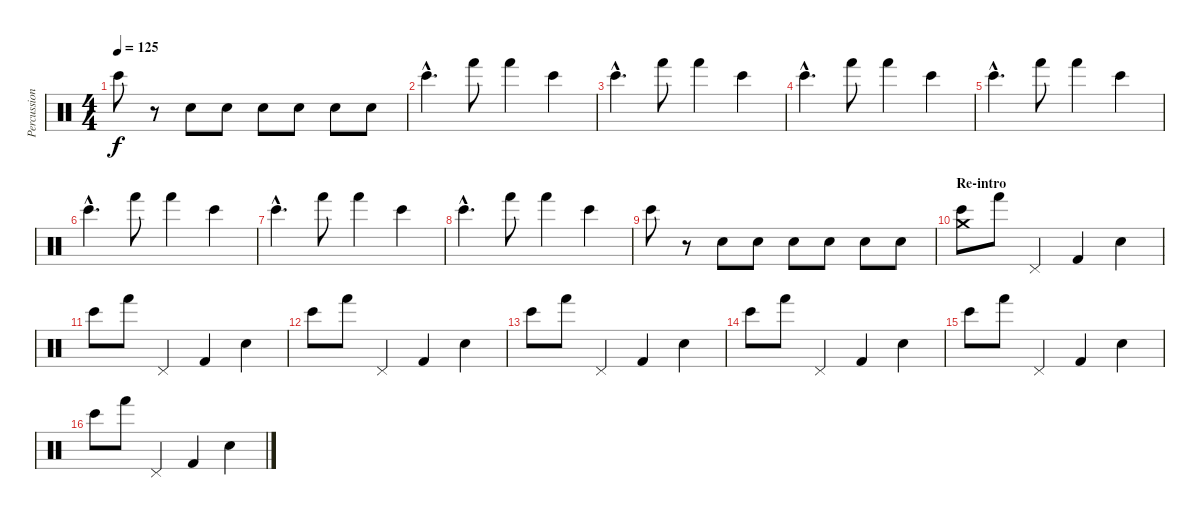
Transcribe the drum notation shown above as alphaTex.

\track ("Percussions" "Percussion") {instrument percussion}
\staff {score}
\articulation defaults
\ts (4 4)
\tempo 125
\clef neutral
\ks c "Bongo High (hit)".8{dy f volume 3}
r.8 "Electric Snare (hit)".8{volume 10} "Electric Snare (hit)".8 "Electric Snare (hit)".8 "Electric Snare (hit)".8 "Electric Snare (hit)".8 "Electric Snare (hit)".8 |
"Bongo High (hit)"{hac}.4{d} "Hand (hit)".8 "Hand (hit)".4 "Bongo High (hit)".4 |
"Bongo High (hit)"{hac}.4{d} "Hand (hit)".8 "Hand (hit)".4 "Bongo High (hit)".4 |
"Bongo High (hit)"{hac}.4{d} "Hand (hit)".8 "Hand (hit)".4 "Bongo High (hit)".4 |
"Bongo High (hit)"{hac}.4{d} "Hand (hit)".8 "Hand (hit)".4 "Bongo High (hit)".4 |
"Bongo High (hit)"{hac}.4{d} "Hand (hit)".8 "Hand (hit)".4 "Bongo High (hit)".4 |
"Bongo High (hit)"{hac}.4{d} "Hand (hit)".8 "Hand (hit)".4 "Bongo High (hit)".4 |
"Bongo High (hit)"{hac}.4{d} "Hand (hit)".8 "Hand (hit)".4 "Bongo High (hit)".4 |
"Bongo High (hit)".8{volume 3} r.8 "Electric Snare (hit)".8{volume 10} "Electric Snare (hit)".8 "Electric Snare (hit)".8 "Electric Snare (hit)".8 "Electric Snare (hit)".8 "Electric Snare (hit)".8 |
\section ("" "Re-intro")
("Crash medium (hit)" "Bongo High (hit)").8 "Hand (hit)".8 "Pedal Hi-Hat (hit)".4 "Kick (hit) 2".4 "Electric Snare (hit)".4 |
"Bongo High (hit)".8 "Hand (hit)".8 "Pedal Hi-Hat (hit)".4 "Kick (hit) 2".4 "Electric Snare (hit)".4 |
"Bongo High (hit)".8 "Hand (hit)".8 "Pedal Hi-Hat (hit)".4 "Kick (hit) 2".4 "Electric Snare (hit)".4 |
"Bongo High (hit)".8 "Hand (hit)".8 "Pedal Hi-Hat (hit)".4 "Kick (hit) 2".4 "Electric Snare (hit)".4 |
"Bongo High (hit)".8 "Hand (hit)".8 "Pedal Hi-Hat (hit)".4 "Kick (hit) 2".4 "Electric Snare (hit)".4 |
"Bongo High (hit)".8 "Hand (hit)".8 "Pedal Hi-Hat (hit)".4 "Kick (hit) 2".4 "Electric Snare (hit)".4 |
"Bongo High (hit)".8 "Hand (hit)".8 "Pedal Hi-Hat (hit)".4 "Kick (hit) 2".4 "Electric Snare (hit)".4
